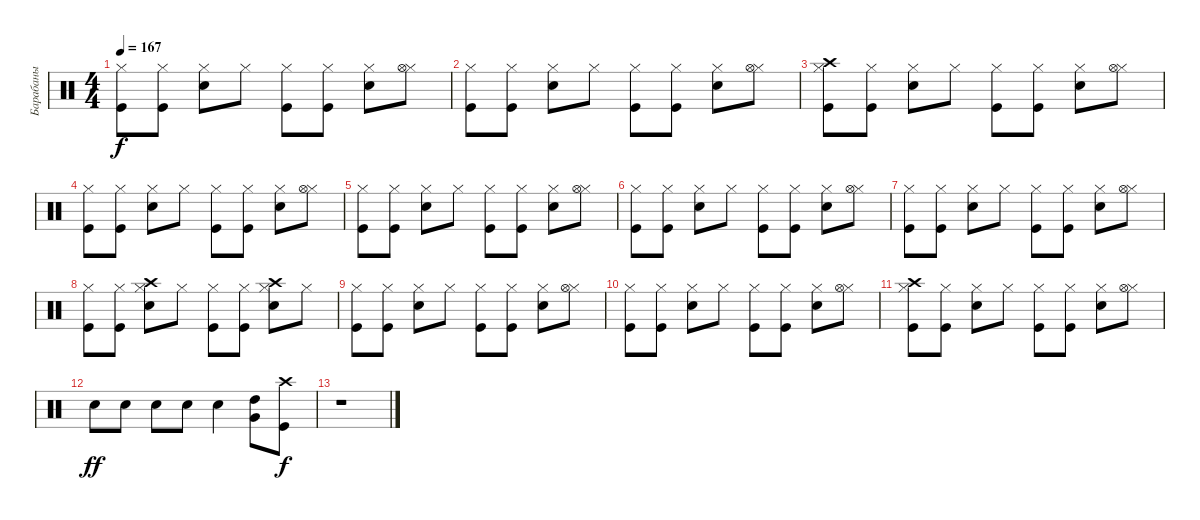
\track ("Барабаны" "Барабаны") {instrument percussion}
\staff {score}
\articulation defaults
\ts (4 4)
\tempo 167
\clef neutral
\ks c
("Kick (hit)" "Hi-Hat (closed)").8{dy f} ("Kick (hit)" "Hi-Hat (closed)").8 ("Snare (hit) 2" "Hi-Hat (closed)").8 "Hi-Hat (closed)".8 ("Kick (hit)" "Hi-Hat (closed)").8 ("Kick (hit)" "Hi-Hat (closed)").8 ("Snare (hit) 2" "Hi-Hat (closed)").8 ("Hi-Hat (closed)" "Hi-Hat (open)").8 |
("Kick (hit)" "Hi-Hat (closed)").8 ("Kick (hit)" "Hi-Hat (closed)").8 ("Snare (hit) 2" "Hi-Hat (closed)").8 "Hi-Hat (closed)".8 ("Kick (hit)" "Hi-Hat (closed)").8 ("Kick (hit)" "Hi-Hat (closed)").8 ("Snare (hit) 2" "Hi-Hat (closed)").8 ("Hi-Hat (closed)" "Hi-Hat (open)").8 |
("Kick (hit)" "Hi-Hat (closed)" "Crash high (hit)").8 ("Kick (hit)" "Hi-Hat (closed)").8 ("Snare (hit) 2" "Hi-Hat (closed)").8 "Hi-Hat (closed)".8 ("Kick (hit)" "Hi-Hat (closed)").8 ("Kick (hit)" "Hi-Hat (closed)").8 ("Snare (hit) 2" "Hi-Hat (closed)").8 ("Hi-Hat (closed)" "Hi-Hat (open)").8 |
("Kick (hit)" "Hi-Hat (closed)").8 ("Kick (hit)" "Hi-Hat (closed)").8 ("Snare (hit) 2" "Hi-Hat (closed)").8 "Hi-Hat (closed)".8 ("Kick (hit)" "Hi-Hat (closed)").8 ("Kick (hit)" "Hi-Hat (closed)").8 ("Snare (hit) 2" "Hi-Hat (closed)").8 ("Hi-Hat (closed)" "Hi-Hat (open)").8 |
("Kick (hit)" "Hi-Hat (closed)").8 ("Kick (hit)" "Hi-Hat (closed)").8 ("Snare (hit) 2" "Hi-Hat (closed)").8 "Hi-Hat (closed)".8 ("Kick (hit)" "Hi-Hat (closed)").8 ("Kick (hit)" "Hi-Hat (closed)").8 ("Snare (hit) 2" "Hi-Hat (closed)").8 ("Hi-Hat (closed)" "Hi-Hat (open)").8 |
("Kick (hit)" "Hi-Hat (closed)").8 ("Kick (hit)" "Hi-Hat (closed)").8 ("Snare (hit) 2" "Hi-Hat (closed)").8 "Hi-Hat (closed)".8 ("Kick (hit)" "Hi-Hat (closed)").8 ("Kick (hit)" "Hi-Hat (closed)").8 ("Snare (hit) 2" "Hi-Hat (closed)").8 ("Hi-Hat (closed)" "Hi-Hat (open)").8 |
("Kick (hit)" "Hi-Hat (closed)").8 ("Kick (hit)" "Hi-Hat (closed)").8 ("Snare (hit) 2" "Hi-Hat (closed)").8 "Hi-Hat (closed)".8 ("Kick (hit)" "Hi-Hat (closed)").8 ("Kick (hit)" "Hi-Hat (closed)").8 ("Snare (hit) 2" "Hi-Hat (closed)").8 ("Hi-Hat (closed)" "Hi-Hat (open)").8 |
("Kick (hit)" "Hi-Hat (closed)").8 ("Kick (hit)" "Hi-Hat (closed)").8 ("Snare (hit) 2" "Hi-Hat (closed)" "Crash high (hit)").8 "Hi-Hat (closed)".8 ("Kick (hit)" "Hi-Hat (closed)").8 ("Kick (hit)" "Hi-Hat (closed)").8 ("Snare (hit) 2" "Hi-Hat (closed)" "Crash high (hit)").8 "Hi-Hat (closed)".8 |
("Kick (hit)" "Hi-Hat (closed)").8 ("Kick (hit)" "Hi-Hat (closed)").8 ("Snare (hit) 2" "Hi-Hat (closed)").8 "Hi-Hat (closed)".8 ("Kick (hit)" "Hi-Hat (closed)").8 ("Kick (hit)" "Hi-Hat (closed)").8 ("Snare (hit) 2" "Hi-Hat (closed)").8 ("Hi-Hat (closed)" "Hi-Hat (open)").8 |
("Kick (hit)" "Hi-Hat (closed)").8 ("Kick (hit)" "Hi-Hat (closed)").8 ("Snare (hit) 2" "Hi-Hat (closed)").8 "Hi-Hat (closed)".8 ("Kick (hit)" "Hi-Hat (closed)").8 ("Kick (hit)" "Hi-Hat (closed)").8 ("Snare (hit) 2" "Hi-Hat (closed)").8 ("Hi-Hat (closed)" "Hi-Hat (open)").8 |
("Kick (hit)" "Hi-Hat (closed)" "Crash high (hit)").8 ("Kick (hit)" "Hi-Hat (closed)").8 ("Snare (hit) 2" "Hi-Hat (closed)").8 "Hi-Hat (closed)".8 ("Kick (hit)" "Hi-Hat (closed)").8 ("Kick (hit)" "Hi-Hat (closed)").8 ("Snare (hit) 2" "Hi-Hat (closed)").8 ("Hi-Hat (closed)" "Hi-Hat (open)").8 |
"Snare (hit) 2".8{dy ff} "Snare (hit) 2".8 "Snare (hit) 2".8 "Snare (hit) 2".8 "Snare (hit) 2".4 ("High Tom (hit)" "Very Low Tom (hit)").8 ("Kick (hit)" "Crash high (hit)").8{dy f} |
r.1
